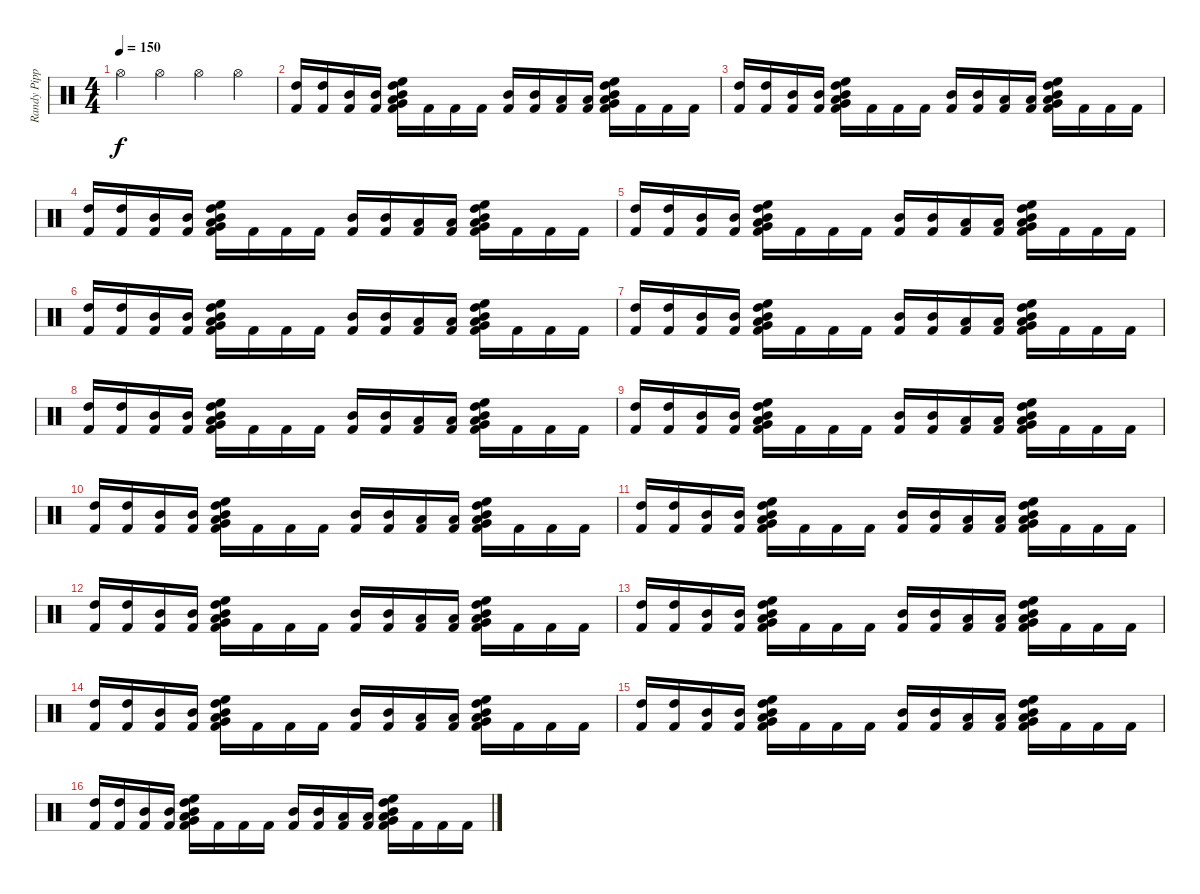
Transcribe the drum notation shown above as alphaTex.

\track ("Randy Pipper" "Randy Pipp") {instrument percussion}
\staff {score}
\articulation defaults
\ts (4 4)
\tempo 150
\clef neutral
\ks c "Hi-Hat (open)".4{dy f} "Hi-Hat (open)".4 "Hi-Hat (open)".4 "Hi-Hat (open)".4
|
("Kick (hit) 2" "High Tom (hit)").16 ("Kick (hit) 2" "High Tom (hit)").16 ("Kick (hit) 2" "Mid Tom (hit)").16 ("Kick (hit) 2" "Mid Tom (hit)").16 ("Kick (hit) 2" "Low Tom (hit)" "Very Low Tom (hit)" "Mid Tom (hit)" "High Tom (hit)" "High Floor Tom (hit)").16 "Kick (hit) 2".16 "Kick (hit) 2".16 "Kick (hit) 2".16 ("Kick (hit) 2" "Mid Tom (hit)").16 ("Kick (hit) 2" "Mid Tom (hit)").16 ("Kick (hit) 2" "Low Tom (hit)").16 ("Kick (hit) 2" "Low Tom (hit)").16 ("Kick (hit) 2" "Low Tom (hit)" "Very Low Tom (hit)" "Mid Tom (hit)" "High Tom (hit)" "High Floor Tom (hit)").16 "Kick (hit) 2".16 "Kick (hit) 2".16 "Kick (hit) 2".16 |
("Kick (hit) 2" "High Tom (hit)").16 ("Kick (hit) 2" "High Tom (hit)").16 ("Kick (hit) 2" "Mid Tom (hit)").16 ("Kick (hit) 2" "Mid Tom (hit)").16 ("Kick (hit) 2" "Low Tom (hit)" "Very Low Tom (hit)" "Mid Tom (hit)" "High Tom (hit)" "High Floor Tom (hit)").16 "Kick (hit) 2".16 "Kick (hit) 2".16 "Kick (hit) 2".16 ("Kick (hit) 2" "Mid Tom (hit)").16 ("Kick (hit) 2" "Mid Tom (hit)").16 ("Kick (hit) 2" "Low Tom (hit)").16 ("Kick (hit) 2" "Low Tom (hit)").16 ("Kick (hit) 2" "Low Tom (hit)" "Very Low Tom (hit)" "Mid Tom (hit)" "High Tom (hit)" "High Floor Tom (hit)").16 "Kick (hit) 2".16 "Kick (hit) 2".16 "Kick (hit) 2".16 |
("Kick (hit) 2" "High Tom (hit)").16 ("Kick (hit) 2" "High Tom (hit)").16 ("Kick (hit) 2" "Mid Tom (hit)").16 ("Kick (hit) 2" "Mid Tom (hit)").16 ("Kick (hit) 2" "Low Tom (hit)" "Very Low Tom (hit)" "Mid Tom (hit)" "High Tom (hit)" "High Floor Tom (hit)").16 "Kick (hit) 2".16 "Kick (hit) 2".16 "Kick (hit) 2".16 ("Kick (hit) 2" "Mid Tom (hit)").16 ("Kick (hit) 2" "Mid Tom (hit)").16 ("Kick (hit) 2" "Low Tom (hit)").16 ("Kick (hit) 2" "Low Tom (hit)").16 ("Kick (hit) 2" "Low Tom (hit)" "Very Low Tom (hit)" "Mid Tom (hit)" "High Tom (hit)" "High Floor Tom (hit)").16 "Kick (hit) 2".16 "Kick (hit) 2".16 "Kick (hit) 2".16 |
("Kick (hit) 2" "High Tom (hit)").16 ("Kick (hit) 2" "High Tom (hit)").16 ("Kick (hit) 2" "Mid Tom (hit)").16 ("Kick (hit) 2" "Mid Tom (hit)").16 ("Kick (hit) 2" "Low Tom (hit)" "Very Low Tom (hit)" "Mid Tom (hit)" "High Tom (hit)" "High Floor Tom (hit)").16 "Kick (hit) 2".16 "Kick (hit) 2".16 "Kick (hit) 2".16 ("Kick (hit) 2" "Mid Tom (hit)").16 ("Kick (hit) 2" "Mid Tom (hit)").16 ("Kick (hit) 2" "Low Tom (hit)").16 ("Kick (hit) 2" "Low Tom (hit)").16 ("Kick (hit) 2" "Low Tom (hit)" "Very Low Tom (hit)" "Mid Tom (hit)" "High Tom (hit)" "High Floor Tom (hit)").16 "Kick (hit) 2".16 "Kick (hit) 2".16 "Kick (hit) 2".16 |
("Kick (hit) 2" "High Tom (hit)").16 ("Kick (hit) 2" "High Tom (hit)").16 ("Kick (hit) 2" "Mid Tom (hit)").16 ("Kick (hit) 2" "Mid Tom (hit)").16 ("Kick (hit) 2" "Low Tom (hit)" "Very Low Tom (hit)" "Mid Tom (hit)" "High Tom (hit)" "High Floor Tom (hit)").16 "Kick (hit) 2".16 "Kick (hit) 2".16 "Kick (hit) 2".16 ("Kick (hit) 2" "Mid Tom (hit)").16 ("Kick (hit) 2" "Mid Tom (hit)").16 ("Kick (hit) 2" "Low Tom (hit)").16 ("Kick (hit) 2" "Low Tom (hit)").16 ("Kick (hit) 2" "Low Tom (hit)" "Very Low Tom (hit)" "Mid Tom (hit)" "High Tom (hit)" "High Floor Tom (hit)").16 "Kick (hit) 2".16 "Kick (hit) 2".16 "Kick (hit) 2".16 |
("Kick (hit) 2" "High Tom (hit)").16 ("Kick (hit) 2" "High Tom (hit)").16 ("Kick (hit) 2" "Mid Tom (hit)").16 ("Kick (hit) 2" "Mid Tom (hit)").16 ("Kick (hit) 2" "Low Tom (hit)" "Very Low Tom (hit)" "Mid Tom (hit)" "High Tom (hit)" "High Floor Tom (hit)").16 "Kick (hit) 2".16 "Kick (hit) 2".16 "Kick (hit) 2".16 ("Kick (hit) 2" "Mid Tom (hit)").16 ("Kick (hit) 2" "Mid Tom (hit)").16 ("Kick (hit) 2" "Low Tom (hit)").16 ("Kick (hit) 2" "Low Tom (hit)").16 ("Kick (hit) 2" "Low Tom (hit)" "Very Low Tom (hit)" "Mid Tom (hit)" "High Tom (hit)" "High Floor Tom (hit)").16 "Kick (hit) 2".16 "Kick (hit) 2".16 "Kick (hit) 2".16 |
("Kick (hit) 2" "High Tom (hit)").16 ("Kick (hit) 2" "High Tom (hit)").16 ("Kick (hit) 2" "Mid Tom (hit)").16 ("Kick (hit) 2" "Mid Tom (hit)").16 ("Kick (hit) 2" "Low Tom (hit)" "Very Low Tom (hit)" "Mid Tom (hit)" "High Tom (hit)" "High Floor Tom (hit)").16 "Kick (hit) 2".16 "Kick (hit) 2".16 "Kick (hit) 2".16 ("Kick (hit) 2" "Mid Tom (hit)").16 ("Kick (hit) 2" "Mid Tom (hit)").16 ("Kick (hit) 2" "Low Tom (hit)").16 ("Kick (hit) 2" "Low Tom (hit)").16 ("Kick (hit) 2" "Low Tom (hit)" "Very Low Tom (hit)" "Mid Tom (hit)" "High Tom (hit)" "High Floor Tom (hit)").16 "Kick (hit) 2".16 "Kick (hit) 2".16 "Kick (hit) 2".16 |
("Kick (hit) 2" "High Tom (hit)").16 ("Kick (hit) 2" "High Tom (hit)").16 ("Kick (hit) 2" "Mid Tom (hit)").16 ("Kick (hit) 2" "Mid Tom (hit)").16 ("Kick (hit) 2" "Low Tom (hit)" "Very Low Tom (hit)" "Mid Tom (hit)" "High Tom (hit)" "High Floor Tom (hit)").16 "Kick (hit) 2".16 "Kick (hit) 2".16 "Kick (hit) 2".16 ("Kick (hit) 2" "Mid Tom (hit)").16 ("Kick (hit) 2" "Mid Tom (hit)").16 ("Kick (hit) 2" "Low Tom (hit)").16 ("Kick (hit) 2" "Low Tom (hit)").16 ("Kick (hit) 2" "Low Tom (hit)" "Very Low Tom (hit)" "Mid Tom (hit)" "High Tom (hit)" "High Floor Tom (hit)").16 "Kick (hit) 2".16 "Kick (hit) 2".16 "Kick (hit) 2".16 |
("Kick (hit) 2" "High Tom (hit)").16 ("Kick (hit) 2" "High Tom (hit)").16 ("Kick (hit) 2" "Mid Tom (hit)").16 ("Kick (hit) 2" "Mid Tom (hit)").16 ("Kick (hit) 2" "Low Tom (hit)" "Very Low Tom (hit)" "Mid Tom (hit)" "High Tom (hit)" "High Floor Tom (hit)").16 "Kick (hit) 2".16 "Kick (hit) 2".16 "Kick (hit) 2".16 ("Kick (hit) 2" "Mid Tom (hit)").16 ("Kick (hit) 2" "Mid Tom (hit)").16 ("Kick (hit) 2" "Low Tom (hit)").16 ("Kick (hit) 2" "Low Tom (hit)").16 ("Kick (hit) 2" "Low Tom (hit)" "Very Low Tom (hit)" "Mid Tom (hit)" "High Tom (hit)" "High Floor Tom (hit)").16 "Kick (hit) 2".16 "Kick (hit) 2".16 "Kick (hit) 2".16 |
("Kick (hit) 2" "High Tom (hit)").16 ("Kick (hit) 2" "High Tom (hit)").16 ("Kick (hit) 2" "Mid Tom (hit)").16 ("Kick (hit) 2" "Mid Tom (hit)").16 ("Kick (hit) 2" "Low Tom (hit)" "Very Low Tom (hit)" "Mid Tom (hit)" "High Tom (hit)" "High Floor Tom (hit)").16 "Kick (hit) 2".16 "Kick (hit) 2".16 "Kick (hit) 2".16 ("Kick (hit) 2" "Mid Tom (hit)").16 ("Kick (hit) 2" "Mid Tom (hit)").16 ("Kick (hit) 2" "Low Tom (hit)").16 ("Kick (hit) 2" "Low Tom (hit)").16 ("Kick (hit) 2" "Low Tom (hit)" "Very Low Tom (hit)" "Mid Tom (hit)" "High Tom (hit)" "High Floor Tom (hit)").16 "Kick (hit) 2".16 "Kick (hit) 2".16 "Kick (hit) 2".16 |
("Kick (hit) 2" "High Tom (hit)").16 ("Kick (hit) 2" "High Tom (hit)").16 ("Kick (hit) 2" "Mid Tom (hit)").16 ("Kick (hit) 2" "Mid Tom (hit)").16 ("Kick (hit) 2" "Low Tom (hit)" "Very Low Tom (hit)" "Mid Tom (hit)" "High Tom (hit)" "High Floor Tom (hit)").16 "Kick (hit) 2".16 "Kick (hit) 2".16 "Kick (hit) 2".16 ("Kick (hit) 2" "Mid Tom (hit)").16 ("Kick (hit) 2" "Mid Tom (hit)").16 ("Kick (hit) 2" "Low Tom (hit)").16 ("Kick (hit) 2" "Low Tom (hit)").16 ("Kick (hit) 2" "Low Tom (hit)" "Very Low Tom (hit)" "Mid Tom (hit)" "High Tom (hit)" "High Floor Tom (hit)").16 "Kick (hit) 2".16 "Kick (hit) 2".16 "Kick (hit) 2".16 |
("Kick (hit) 2" "High Tom (hit)").16 ("Kick (hit) 2" "High Tom (hit)").16 ("Kick (hit) 2" "Mid Tom (hit)").16 ("Kick (hit) 2" "Mid Tom (hit)").16 ("Kick (hit) 2" "Low Tom (hit)" "Very Low Tom (hit)" "Mid Tom (hit)" "High Tom (hit)" "High Floor Tom (hit)").16 "Kick (hit) 2".16 "Kick (hit) 2".16 "Kick (hit) 2".16 ("Kick (hit) 2" "Mid Tom (hit)").16 ("Kick (hit) 2" "Mid Tom (hit)").16 ("Kick (hit) 2" "Low Tom (hit)").16 ("Kick (hit) 2" "Low Tom (hit)").16 ("Kick (hit) 2" "Low Tom (hit)" "Very Low Tom (hit)" "Mid Tom (hit)" "High Tom (hit)" "High Floor Tom (hit)").16 "Kick (hit) 2".16 "Kick (hit) 2".16 "Kick (hit) 2".16 |
("Kick (hit) 2" "High Tom (hit)").16 ("Kick (hit) 2" "High Tom (hit)").16 ("Kick (hit) 2" "Mid Tom (hit)").16 ("Kick (hit) 2" "Mid Tom (hit)").16 ("Kick (hit) 2" "Low Tom (hit)" "Very Low Tom (hit)" "Mid Tom (hit)" "High Tom (hit)" "High Floor Tom (hit)").16 "Kick (hit) 2".16 "Kick (hit) 2".16 "Kick (hit) 2".16 ("Kick (hit) 2" "Mid Tom (hit)").16 ("Kick (hit) 2" "Mid Tom (hit)").16 ("Kick (hit) 2" "Low Tom (hit)").16 ("Kick (hit) 2" "Low Tom (hit)").16 ("Kick (hit) 2" "Low Tom (hit)" "Very Low Tom (hit)" "Mid Tom (hit)" "High Tom (hit)" "High Floor Tom (hit)").16 "Kick (hit) 2".16 "Kick (hit) 2".16 "Kick (hit) 2".16 |
("Kick (hit) 2" "High Tom (hit)").16 ("Kick (hit) 2" "High Tom (hit)").16 ("Kick (hit) 2" "Mid Tom (hit)").16 ("Kick (hit) 2" "Mid Tom (hit)").16 ("Kick (hit) 2" "Low Tom (hit)" "Very Low Tom (hit)" "Mid Tom (hit)" "High Tom (hit)" "High Floor Tom (hit)").16 "Kick (hit) 2".16 "Kick (hit) 2".16 "Kick (hit) 2".16 ("Kick (hit) 2" "Mid Tom (hit)").16 ("Kick (hit) 2" "Mid Tom (hit)").16 ("Kick (hit) 2" "Low Tom (hit)").16 ("Kick (hit) 2" "Low Tom (hit)").16 ("Kick (hit) 2" "Low Tom (hit)" "Very Low Tom (hit)" "Mid Tom (hit)" "High Tom (hit)" "High Floor Tom (hit)").16 "Kick (hit) 2".16 "Kick (hit) 2".16 "Kick (hit) 2".16 |
("Kick (hit) 2" "High Tom (hit)").16 ("Kick (hit) 2" "High Tom (hit)").16 ("Kick (hit) 2" "Mid Tom (hit)").16 ("Kick (hit) 2" "Mid Tom (hit)").16 ("Kick (hit) 2" "Low Tom (hit)" "Very Low Tom (hit)" "Mid Tom (hit)" "High Tom (hit)" "High Floor Tom (hit)").16 "Kick (hit) 2".16 "Kick (hit) 2".16 "Kick (hit) 2".16 ("Kick (hit) 2" "Mid Tom (hit)").16 ("Kick (hit) 2" "Mid Tom (hit)").16 ("Kick (hit) 2" "Low Tom (hit)").16 ("Kick (hit) 2" "Low Tom (hit)").16 ("Kick (hit) 2" "Low Tom (hit)" "Very Low Tom (hit)" "Mid Tom (hit)" "High Tom (hit)" "High Floor Tom (hit)").16 "Kick (hit) 2".16 "Kick (hit) 2".16 "Kick (hit) 2".16
